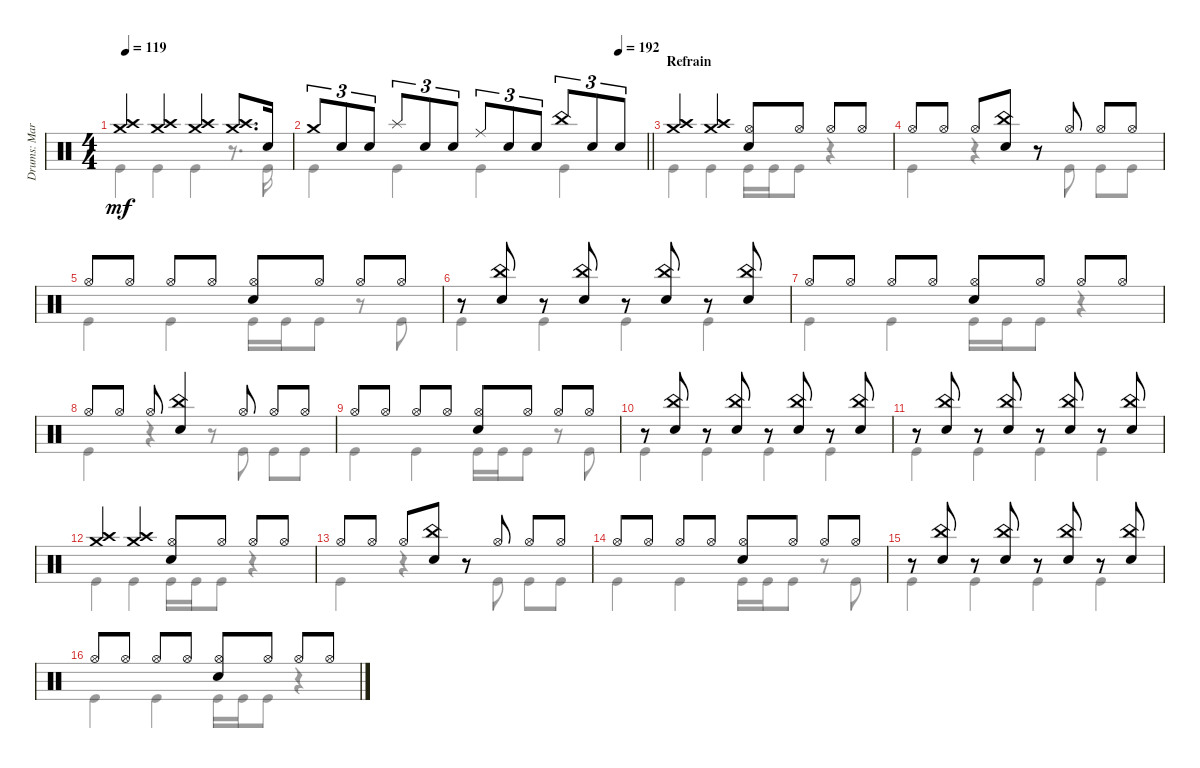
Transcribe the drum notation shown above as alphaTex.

\track ("Drums: Mario Duplantier" "Drums: Mar") {instrument percussion}
\staff {score}
\articulation defaults
\voice
\ts (4 4)
\tempo 119
\clef neutral
\ks c
("Crash medium (hit)" "Crash high (hit)").4{dy mf} ("Crash medium (hit)" "Crash high (hit)").4 ("Crash medium (hit)" "Crash high (hit)").4 ("Crash medium (hit)" "Crash high (hit)").8{d} "Snare (hit) 2".16 |
\tempo (192 0.9166666666666666)
\barLineRight lightlight "Crash medium (hit)".8{tu (3 2)} "Snare (hit) 2".8{tu (3 2)} "Snare (hit) 2".8{tu (3 2)} "Splash (hit)".8{tu (3 2)} "Snare (hit) 2".8{tu (3 2)} "Snare (hit) 2".8{tu (3 2)} "Ride (middle)".8{tu (3 2)} "Snare (hit) 2".8{tu (3 2)} "Snare (hit) 2".8{tu (3 2)} "China (hit)".8{tu (3 2)} "Snare (hit) 2".8{tu (3 2)} "Snare (hit) 2".8{tu (3 2)}
|
\section ("" "Refrain")
("Crash medium (hit)" "Crash high (hit)").4 ("Crash medium (hit)" "Crash high (hit)").4 ("Snare (hit) 2" "Hi-Hat (open)").8 "Hi-Hat (open)".8 "Hi-Hat (open)".8 "Hi-Hat (open)".8 |
"Hi-Hat (open)".8 "Hi-Hat (open)".8 "Hi-Hat (open)".8 ("Snare (hit) 2" "China (hit)").8 r.8 "Hi-Hat (open)".8 "Hi-Hat (open)".8 "Hi-Hat (open)".8 |
"Hi-Hat (open)".8 "Hi-Hat (open)".8 "Hi-Hat (open)".8 "Hi-Hat (open)".8 ("Snare (hit) 2" "Hi-Hat (open)").8 "Hi-Hat (open)".8 "Hi-Hat (open)".8 "Hi-Hat (open)".8 |
r.8 ("Snare (hit) 2" "China (hit)").8 r.8 ("Snare (hit) 2" "China (hit)").8 r.8 ("Snare (hit) 2" "China (hit)").8 r.8 ("Snare (hit) 2" "China (hit)").8 |
"Hi-Hat (open)".8 "Hi-Hat (open)".8 "Hi-Hat (open)".8 "Hi-Hat (open)".8 ("Snare (hit) 2" "Hi-Hat (open)").8 "Hi-Hat (open)".8 "Hi-Hat (open)".8 "Hi-Hat (open)".8 |
"Hi-Hat (open)".8 "Hi-Hat (open)".8 "Hi-Hat (open)".8 ("Snare (hit) 2" "China (hit)").4 "Hi-Hat (open)".8 "Hi-Hat (open)".8 "Hi-Hat (open)".8 |
"Hi-Hat (open)".8 "Hi-Hat (open)".8 "Hi-Hat (open)".8 "Hi-Hat (open)".8 ("Snare (hit) 2" "Hi-Hat (open)").8 "Hi-Hat (open)".8 "Hi-Hat (open)".8 "Hi-Hat (open)".8 |
r.8 ("Snare (hit) 2" "China (hit)").8 r.8 ("Snare (hit) 2" "China (hit)").8 r.8 ("Snare (hit) 2" "China (hit)").8 r.8 ("Snare (hit) 2" "China (hit)").8 |
r.8 ("Snare (hit) 2" "China (hit)").8 r.8 ("Snare (hit) 2" "China (hit)").8 r.8 ("Snare (hit) 2" "China (hit)").8 r.8 ("Snare (hit) 2" "China (hit)").8 |
("Crash medium (hit)" "Crash high (hit)").4 ("Crash medium (hit)" "Crash high (hit)").4 ("Snare (hit) 2" "Hi-Hat (open)").8 "Hi-Hat (open)".8 "Hi-Hat (open)".8 "Hi-Hat (open)".8 |
"Hi-Hat (open)".8 "Hi-Hat (open)".8 "Hi-Hat (open)".8 ("Snare (hit) 2" "China (hit)").8 r.8 "Hi-Hat (open)".8 "Hi-Hat (open)".8 "Hi-Hat (open)".8 |
"Hi-Hat (open)".8 "Hi-Hat (open)".8 "Hi-Hat (open)".8 "Hi-Hat (open)".8 ("Snare (hit) 2" "Hi-Hat (open)").8 "Hi-Hat (open)".8 "Hi-Hat (open)".8 "Hi-Hat (open)".8 |
r.8 ("Snare (hit) 2" "China (hit)").8 r.8 ("Snare (hit) 2" "China (hit)").8 r.8 ("Snare (hit) 2" "China (hit)").8 r.8 ("Snare (hit) 2" "China (hit)").8 |
"Hi-Hat (open)".8 "Hi-Hat (open)".8 "Hi-Hat (open)".8 "Hi-Hat (open)".8 ("Snare (hit) 2" "Hi-Hat (open)").8 "Hi-Hat (open)".8 "Hi-Hat (open)".8 "Hi-Hat (open)".8
\voice
\clef neutral
\ottava regular
\simile none
\ks c "Kick (hit)".4{dy mf} "Kick (hit)".4 "Kick (hit)".4
r.8{d} "Kick (hit)".16 |
\barLineRight lightlight "Kick (hit)".4 "Kick (hit)".4 "Kick (hit)".4 "Kick (hit)".4
|
"Kick (hit)".4 "Kick (hit)".4 "Kick (hit)".16 "Kick (hit)".16 "Kick (hit)".8 r.4 |
"Kick (hit)".4 r.4 r.8 "Kick (hit)".8 "Kick (hit)".8 "Kick (hit)".8 |
"Kick (hit)".4 "Kick (hit)".4 "Kick (hit)".16 "Kick (hit)".16 "Kick (hit)".8 r.8 "Kick (hit)".8 |
"Kick (hit)".4 "Kick (hit)".4 "Kick (hit)".4 "Kick (hit)".4 |
"Kick (hit)".4 "Kick (hit)".4 "Kick (hit)".16 "Kick (hit)".16 "Kick (hit)".8 r.4 |
"Kick (hit)".4 r.4 r.8 "Kick (hit)".8 "Kick (hit)".8 "Kick (hit)".8 |
"Kick (hit)".4 "Kick (hit)".4 "Kick (hit)".16 "Kick (hit)".16 "Kick (hit)".8 r.8 "Kick (hit)".8 |
"Kick (hit)".4 "Kick (hit)".4 "Kick (hit)".4 "Kick (hit)".4 |
"Kick (hit)".4 "Kick (hit)".4 "Kick (hit)".4 "Kick (hit)".4 |
"Kick (hit)".4 "Kick (hit)".4 "Kick (hit)".16 "Kick (hit)".16 "Kick (hit)".8 r.4 |
"Kick (hit)".4 r.4 r.8 "Kick (hit)".8 "Kick (hit)".8 "Kick (hit)".8 |
"Kick (hit)".4 "Kick (hit)".4 "Kick (hit)".16 "Kick (hit)".16 "Kick (hit)".8 r.8 "Kick (hit)".8 |
"Kick (hit)".4 "Kick (hit)".4 "Kick (hit)".4 "Kick (hit)".4 |
"Kick (hit)".4 "Kick (hit)".4 "Kick (hit)".16 "Kick (hit)".16 "Kick (hit)".8 r.4
